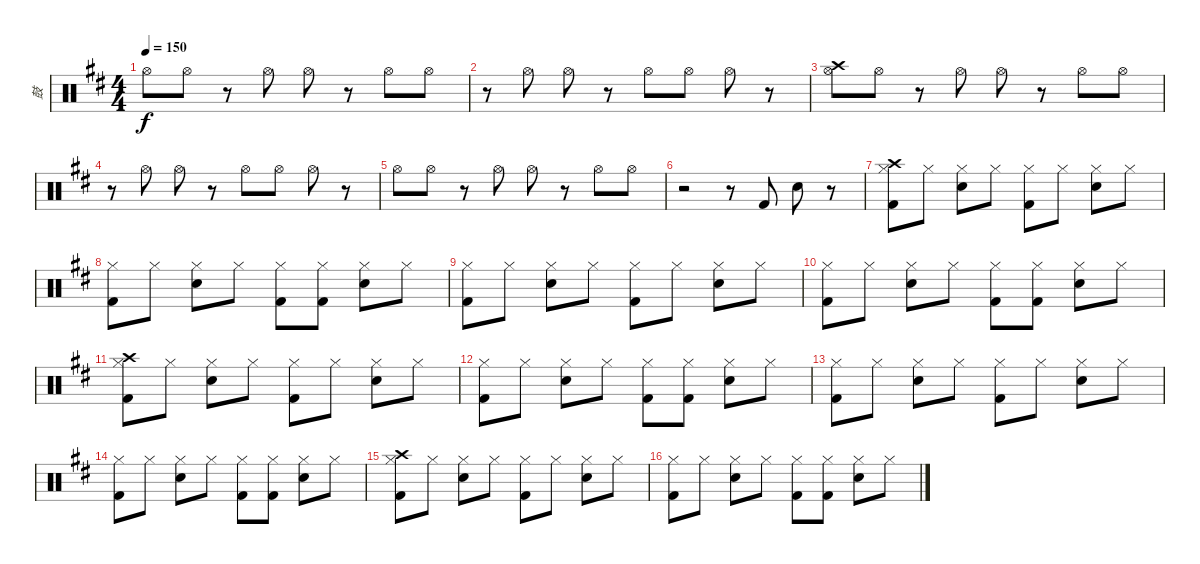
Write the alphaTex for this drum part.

\track ("鼓" "鼓") {instrument percussion}
\staff {score}
\articulation defaults
\ts (4 4)
\tempo 150
\clef neutral
\ks d "Hi-Hat (open)".8{dy f} "Hi-Hat (open)".8
r.8 "Hi-Hat (open)".8 "Hi-Hat (open)".8 r.8 "Hi-Hat (open)".8 "Hi-Hat (open)".8 |
r.8 "Hi-Hat (open)".8 "Hi-Hat (open)".8 r.8 "Hi-Hat (open)".8 "Hi-Hat (open)".8 "Hi-Hat (open)".8 r.8 |
("Crash high (hit)" "Hi-Hat (open)").8 "Hi-Hat (open)".8 r.8 "Hi-Hat (open)".8 "Hi-Hat (open)".8 r.8 "Hi-Hat (open)".8 "Hi-Hat (open)".8 |
r.8 "Hi-Hat (open)".8 "Hi-Hat (open)".8 r.8 "Hi-Hat (open)".8 "Hi-Hat (open)".8 "Hi-Hat (open)".8 r.8 |
"Hi-Hat (open)".8 "Hi-Hat (open)".8 r.8 "Hi-Hat (open)".8 "Hi-Hat (open)".8 r.8 "Hi-Hat (open)".8 "Hi-Hat (open)".8 |
r.2 r.8 "Kick (hit) 2".8 "Snare (hit) 2".8 r.8 |
("Crash high (hit)" "Hi-Hat (closed)" "Kick (hit) 2").8 "Hi-Hat (closed)".8 ("Hi-Hat (closed)" "Snare (hit) 2").8 "Hi-Hat (closed)".8 ("Hi-Hat (closed)" "Kick (hit) 2").8 "Hi-Hat (closed)".8 ("Hi-Hat (closed)" "Snare (hit) 2").8 "Hi-Hat (closed)".8 |
("Hi-Hat (closed)" "Kick (hit) 2").8 "Hi-Hat (closed)".8 ("Hi-Hat (closed)" "Snare (hit) 2").8 "Hi-Hat (closed)".8 ("Hi-Hat (closed)" "Kick (hit) 2").8 ("Hi-Hat (closed)" "Kick (hit) 2").8 ("Hi-Hat (closed)" "Snare (hit) 2").8 "Hi-Hat (closed)".8 |
("Hi-Hat (closed)" "Kick (hit) 2").8 "Hi-Hat (closed)".8 ("Hi-Hat (closed)" "Snare (hit) 2").8 "Hi-Hat (closed)".8 ("Hi-Hat (closed)" "Kick (hit) 2").8 "Hi-Hat (closed)".8 ("Hi-Hat (closed)" "Snare (hit) 2").8 "Hi-Hat (closed)".8 |
("Hi-Hat (closed)" "Kick (hit) 2").8 "Hi-Hat (closed)".8 ("Hi-Hat (closed)" "Snare (hit) 2").8 "Hi-Hat (closed)".8 ("Hi-Hat (closed)" "Kick (hit) 2").8 ("Hi-Hat (closed)" "Kick (hit) 2").8 ("Hi-Hat (closed)" "Snare (hit) 2").8 "Hi-Hat (closed)".8 |
("Crash high (hit)" "Hi-Hat (closed)" "Kick (hit) 2").8 "Hi-Hat (closed)".8 ("Hi-Hat (closed)" "Snare (hit) 2").8 "Hi-Hat (closed)".8 ("Hi-Hat (closed)" "Kick (hit) 2").8 "Hi-Hat (closed)".8 ("Hi-Hat (closed)" "Snare (hit) 2").8 "Hi-Hat (closed)".8 |
("Hi-Hat (closed)" "Kick (hit) 2").8 "Hi-Hat (closed)".8 ("Hi-Hat (closed)" "Snare (hit) 2").8 "Hi-Hat (closed)".8 ("Hi-Hat (closed)" "Kick (hit) 2").8 ("Hi-Hat (closed)" "Kick (hit) 2").8 ("Hi-Hat (closed)" "Snare (hit) 2").8 "Hi-Hat (closed)".8 |
("Hi-Hat (closed)" "Kick (hit) 2").8 "Hi-Hat (closed)".8 ("Hi-Hat (closed)" "Snare (hit) 2").8 "Hi-Hat (closed)".8 ("Hi-Hat (closed)" "Kick (hit) 2").8 "Hi-Hat (closed)".8 ("Hi-Hat (closed)" "Snare (hit) 2").8 "Hi-Hat (closed)".8 |
("Hi-Hat (closed)" "Kick (hit) 2").8 "Hi-Hat (closed)".8 ("Hi-Hat (closed)" "Snare (hit) 2").8 "Hi-Hat (closed)".8 ("Hi-Hat (closed)" "Kick (hit) 2").8 ("Hi-Hat (closed)" "Kick (hit) 2").8 ("Hi-Hat (closed)" "Snare (hit) 2").8 "Hi-Hat (closed)".8 |
("Crash high (hit)" "Hi-Hat (closed)" "Kick (hit) 2").8 "Hi-Hat (closed)".8 ("Hi-Hat (closed)" "Snare (hit) 2").8 "Hi-Hat (closed)".8 ("Hi-Hat (closed)" "Kick (hit) 2").8 "Hi-Hat (closed)".8 ("Hi-Hat (closed)" "Snare (hit) 2").8 "Hi-Hat (closed)".8 |
("Hi-Hat (closed)" "Kick (hit) 2").8 "Hi-Hat (closed)".8 ("Hi-Hat (closed)" "Snare (hit) 2").8 "Hi-Hat (closed)".8 ("Hi-Hat (closed)" "Kick (hit) 2").8 ("Hi-Hat (closed)" "Kick (hit) 2").8 ("Hi-Hat (closed)" "Snare (hit) 2").8 "Hi-Hat (closed)".8
